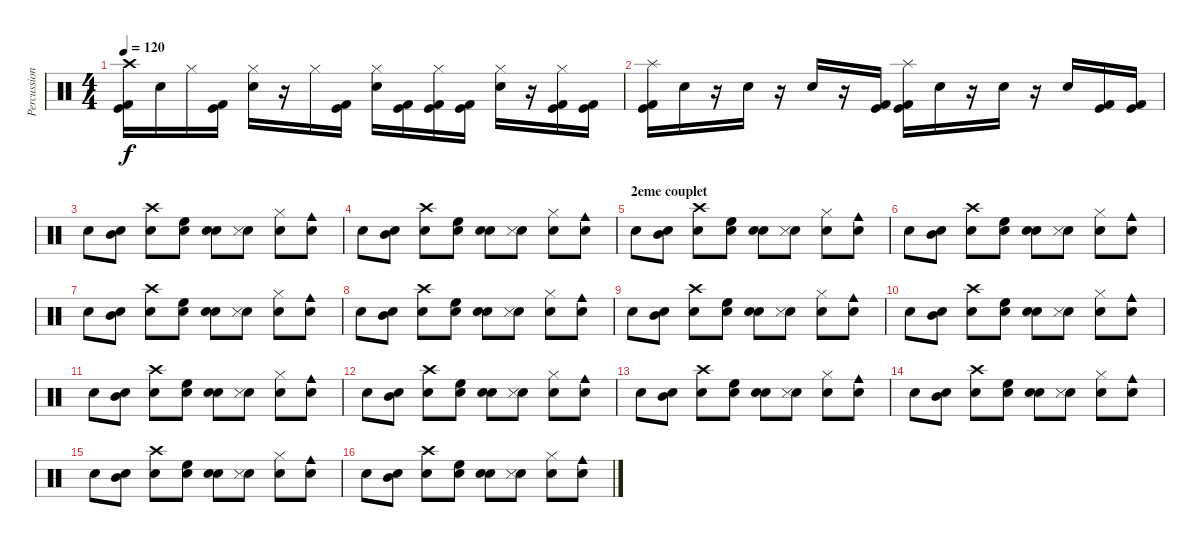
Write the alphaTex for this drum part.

\track ("Percussions" "Percussion") {instrument percussion}
\staff {score}
\articulation defaults
\ts (4 4)
\tempo 120
\clef neutral
\ks c
("Crash high (hit)" "Kick (hit) 2" "Kick (hit)").16{dy f} "Electric Snare (hit)".16 "Hi-Hat (closed)".16 ("Kick (hit)" "Kick (hit) 2").16 ("Hi-Hat (closed)" "Electric Snare (hit)").16 r.16 "Hi-Hat (closed)".16 ("Kick (hit) 2" "Kick (hit)").16 ("Hi-Hat (closed)" "Electric Snare (hit)").16 ("Kick (hit) 2" "Kick (hit)").16 ("Hi-Hat (closed)" "Kick (hit) 2" "Kick (hit)").16 ("Kick (hit) 2" "Kick (hit)").16 ("Hi-Hat (closed)" "Electric Snare (hit)").16 r.16 ("Hi-Hat (closed)" "Kick (hit) 2" "Kick (hit)").16 ("Kick (hit) 2" "Kick (hit)").16 |
("Splash (hit)" "Kick (hit) 2" "Kick (hit)").16 "Electric Snare (hit)".16 r.16 "Electric Snare (hit)".16 r.16 "Electric Snare (hit)".16 r.16 ("Kick (hit) 2" "Kick (hit)").16 ("Splash (hit)" "Kick (hit) 2" "Kick (hit)").16 "Electric Snare (hit)".16 r.16 "Electric Snare (hit)".16 r.16 "Electric Snare (hit)".16 ("Kick (hit) 2" "Kick (hit)").16 ("Kick (hit) 2" "Kick (hit)").16 |
"Snare (hit) 2".8 ("Snare (hit) 2" "Mid Tom (hit)").8 ("Snare (hit) 2" "Crash high (hit)").8 ("Snare (hit) 2" "High Floor Tom (hit)").8 ("Snare (hit) 2" "Snare (hit) 2").8 ("Snare (hit) 2" "Snare (side stick) 3").8 ("Snare (hit) 2" "Hi-Hat (closed)").8 ("Snare (hit) 2" "Cowbell medium (hit)").8 |
"Snare (hit) 2".8 ("Snare (hit) 2" "Mid Tom (hit)").8 ("Snare (hit) 2" "Crash high (hit)").8 ("Snare (hit) 2" "High Floor Tom (hit)").8 ("Snare (hit) 2" "Snare (hit) 2").8 ("Snare (hit) 2" "Snare (side stick) 3").8 ("Snare (hit) 2" "Hi-Hat (closed)").8 ("Snare (hit) 2" "Cowbell medium (hit)").8 |
\section ("" "2eme couplet")
"Snare (hit) 2".8 ("Snare (hit) 2" "Mid Tom (hit)").8 ("Snare (hit) 2" "Crash high (hit)").8 ("Snare (hit) 2" "High Floor Tom (hit)").8 ("Snare (hit) 2" "Snare (hit) 2").8 ("Snare (hit) 2" "Snare (side stick) 3").8 ("Snare (hit) 2" "Hi-Hat (closed)").8 ("Snare (hit) 2" "Cowbell medium (hit)").8 |
"Snare (hit) 2".8 ("Snare (hit) 2" "Mid Tom (hit)").8 ("Snare (hit) 2" "Crash high (hit)").8 ("Snare (hit) 2" "High Floor Tom (hit)").8 ("Snare (hit) 2" "Snare (hit) 2").8 ("Snare (hit) 2" "Snare (side stick) 3").8 ("Snare (hit) 2" "Hi-Hat (closed)").8 ("Snare (hit) 2" "Cowbell medium (hit)").8 |
"Snare (hit) 2".8 ("Snare (hit) 2" "Mid Tom (hit)").8 ("Snare (hit) 2" "Crash high (hit)").8 ("Snare (hit) 2" "High Floor Tom (hit)").8 ("Snare (hit) 2" "Snare (hit) 2").8 ("Snare (hit) 2" "Snare (side stick) 3").8 ("Snare (hit) 2" "Hi-Hat (closed)").8 ("Snare (hit) 2" "Cowbell medium (hit)").8 |
"Snare (hit) 2".8 ("Snare (hit) 2" "Mid Tom (hit)").8 ("Snare (hit) 2" "Crash high (hit)").8 ("Snare (hit) 2" "High Floor Tom (hit)").8 ("Snare (hit) 2" "Snare (hit) 2").8 ("Snare (hit) 2" "Snare (side stick) 3").8 ("Snare (hit) 2" "Hi-Hat (closed)").8 ("Snare (hit) 2" "Cowbell medium (hit)").8 |
"Snare (hit) 2".8 ("Snare (hit) 2" "Mid Tom (hit)").8 ("Snare (hit) 2" "Crash high (hit)").8 ("Snare (hit) 2" "High Floor Tom (hit)").8 ("Snare (hit) 2" "Snare (hit) 2").8 ("Snare (hit) 2" "Snare (side stick) 3").8 ("Snare (hit) 2" "Hi-Hat (closed)").8 ("Snare (hit) 2" "Cowbell medium (hit)").8 |
"Snare (hit) 2".8 ("Snare (hit) 2" "Mid Tom (hit)").8 ("Snare (hit) 2" "Crash high (hit)").8 ("Snare (hit) 2" "High Floor Tom (hit)").8 ("Snare (hit) 2" "Snare (hit) 2").8 ("Snare (hit) 2" "Snare (side stick) 3").8 ("Snare (hit) 2" "Hi-Hat (closed)").8 ("Snare (hit) 2" "Cowbell medium (hit)").8 |
"Snare (hit) 2".8 ("Snare (hit) 2" "Mid Tom (hit)").8 ("Snare (hit) 2" "Crash high (hit)").8 ("Snare (hit) 2" "High Floor Tom (hit)").8 ("Snare (hit) 2" "Snare (hit) 2").8 ("Snare (hit) 2" "Snare (side stick) 3").8 ("Snare (hit) 2" "Hi-Hat (closed)").8 ("Snare (hit) 2" "Cowbell medium (hit)").8 |
"Snare (hit) 2".8 ("Snare (hit) 2" "Mid Tom (hit)").8 ("Snare (hit) 2" "Crash high (hit)").8 ("Snare (hit) 2" "High Floor Tom (hit)").8 ("Snare (hit) 2" "Snare (hit) 2").8 ("Snare (hit) 2" "Snare (side stick) 3").8 ("Snare (hit) 2" "Hi-Hat (closed)").8 ("Snare (hit) 2" "Cowbell medium (hit)").8 |
"Snare (hit) 2".8 ("Snare (hit) 2" "Mid Tom (hit)").8 ("Snare (hit) 2" "Crash high (hit)").8 ("Snare (hit) 2" "High Floor Tom (hit)").8 ("Snare (hit) 2" "Snare (hit) 2").8 ("Snare (hit) 2" "Snare (side stick) 3").8 ("Snare (hit) 2" "Hi-Hat (closed)").8 ("Snare (hit) 2" "Cowbell medium (hit)").8 |
"Snare (hit) 2".8 ("Snare (hit) 2" "Mid Tom (hit)").8 ("Snare (hit) 2" "Crash high (hit)").8 ("Snare (hit) 2" "High Floor Tom (hit)").8 ("Snare (hit) 2" "Snare (hit) 2").8 ("Snare (hit) 2" "Snare (side stick) 3").8 ("Snare (hit) 2" "Hi-Hat (closed)").8 ("Snare (hit) 2" "Cowbell medium (hit)").8 |
"Snare (hit) 2".8 ("Snare (hit) 2" "Mid Tom (hit)").8 ("Snare (hit) 2" "Crash high (hit)").8 ("Snare (hit) 2" "High Floor Tom (hit)").8 ("Snare (hit) 2" "Snare (hit) 2").8 ("Snare (hit) 2" "Snare (side stick) 3").8 ("Snare (hit) 2" "Hi-Hat (closed)").8 ("Snare (hit) 2" "Cowbell medium (hit)").8 |
"Snare (hit) 2".8 ("Snare (hit) 2" "Mid Tom (hit)").8 ("Snare (hit) 2" "Crash high (hit)").8 ("Snare (hit) 2" "High Floor Tom (hit)").8 ("Snare (hit) 2" "Snare (hit) 2").8 ("Snare (hit) 2" "Snare (side stick) 3").8 ("Snare (hit) 2" "Hi-Hat (closed)").8 ("Snare (hit) 2" "Cowbell medium (hit)").8
